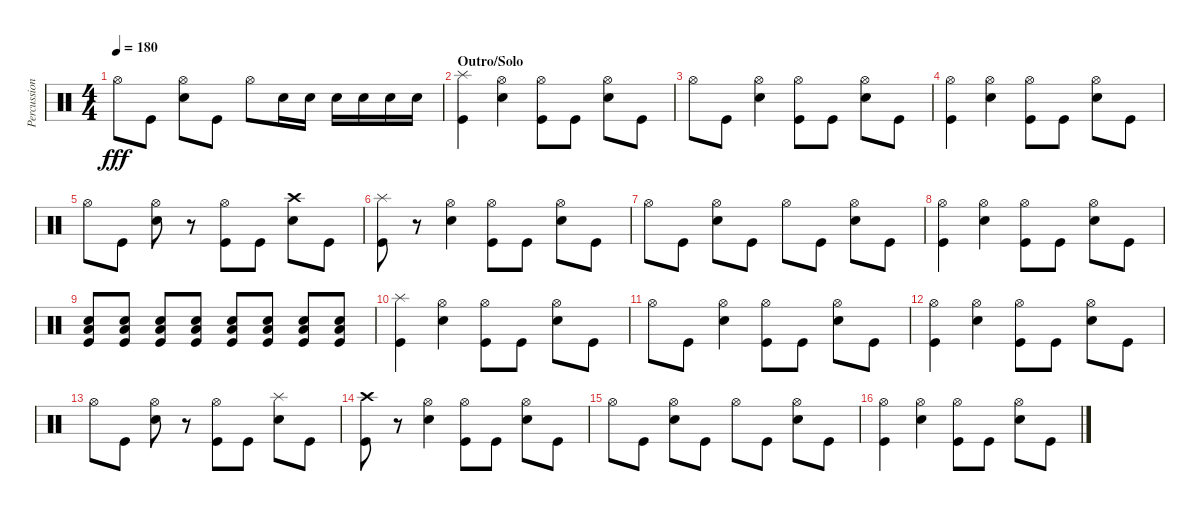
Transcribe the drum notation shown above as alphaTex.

\track ("Percussion" "Percussion") {instrument percussion}
\staff {score}
\articulation defaults
\ts (4 4)
\tempo 180
\clef neutral
\ks c "Hi-Hat (open)".8{dy fff} "Kick (hit)".8
("Hi-Hat (open)" "Snare (hit) 2").8 "Kick (hit)".8 "Hi-Hat (open)".8 "Snare (hit) 2".16 "Snare (hit) 2".16 "Snare (hit) 2".16 "Snare (hit) 2".16 "Snare (hit) 2".16 "Snare (hit) 2".16 |
\section ("" "Outro/Solo")
("Splash (hit)" "Kick (hit)").4 ("Hi-Hat (open)" "Snare (hit) 2").4 ("Hi-Hat (open)" "Kick (hit)").8 "Kick (hit)".8 ("Hi-Hat (open)" "Snare (hit) 2").8 "Kick (hit)".8 |
"Hi-Hat (open)".8 "Kick (hit)".8 ("Hi-Hat (open)" "Snare (hit) 2").4 ("Hi-Hat (open)" "Kick (hit)").8 "Kick (hit)".8 ("Hi-Hat (open)" "Snare (hit) 2").8 "Kick (hit)".8 |
("Hi-Hat (open)" "Kick (hit)").4 ("Hi-Hat (open)" "Snare (hit) 2").4 ("Hi-Hat (open)" "Kick (hit)").8 "Kick (hit)".8 ("Hi-Hat (open)" "Snare (hit) 2").8 "Kick (hit)".8 |
"Hi-Hat (open)".8 "Kick (hit)".8 ("Hi-Hat (open)" "Snare (hit) 2").8 r.8 ("Hi-Hat (open)" "Kick (hit)").8 "Kick (hit)".8 ("Crash high (hit)" "Snare (hit) 2").8 "Kick (hit)".8 |
("Splash (hit)" "Kick (hit)").8 r.8 ("Hi-Hat (open)" "Snare (hit) 2").4 ("Hi-Hat (open)" "Kick (hit)").8 "Kick (hit)".8 ("Hi-Hat (open)" "Snare (hit) 2").8 "Kick (hit)".8 |
"Hi-Hat (open)".8 "Kick (hit)".8 ("Hi-Hat (open)" "Snare (hit) 2").8 "Kick (hit)".8 "Hi-Hat (open)".8 "Kick (hit)".8 ("Hi-Hat (open)" "Snare (hit) 2").8 "Kick (hit)".8 |
("Hi-Hat (open)" "Kick (hit)").4 ("Hi-Hat (open)" "Snare (hit) 2").4 ("Hi-Hat (open)" "Kick (hit)").8 "Kick (hit)".8 ("Hi-Hat (open)" "Snare (hit) 2").8 "Kick (hit)".8 |
("Low Tom (hit)" "Snare (hit) 2" "Kick (hit)").8 ("Low Tom (hit)" "Snare (hit) 2" "Kick (hit)").8 ("Low Tom (hit)" "Snare (hit) 2" "Kick (hit)").8 ("Low Tom (hit)" "Snare (hit) 2" "Kick (hit)").8 ("Low Tom (hit)" "Snare (hit) 2" "Kick (hit)").8 ("Low Tom (hit)" "Snare (hit) 2" "Kick (hit)").8 ("Low Tom (hit)" "Snare (hit) 2" "Kick (hit)").8 ("Low Tom (hit)" "Snare (hit) 2" "Kick (hit)").8 |
("Splash (hit)" "Kick (hit)").4 ("Hi-Hat (open)" "Snare (hit) 2").4 ("Hi-Hat (open)" "Kick (hit)").8 "Kick (hit)".8 ("Hi-Hat (open)" "Snare (hit) 2").8 "Kick (hit)".8 |
"Hi-Hat (open)".8 "Kick (hit)".8 ("Hi-Hat (open)" "Snare (hit) 2").4 ("Hi-Hat (open)" "Kick (hit)").8 "Kick (hit)".8 ("Hi-Hat (open)" "Snare (hit) 2").8 "Kick (hit)".8 |
("Hi-Hat (open)" "Kick (hit)").4 ("Hi-Hat (open)" "Snare (hit) 2").4 ("Hi-Hat (open)" "Kick (hit)").8 "Kick (hit)".8 ("Hi-Hat (open)" "Snare (hit) 2").8 "Kick (hit)".8 |
"Hi-Hat (open)".8 "Kick (hit)".8 ("Hi-Hat (open)" "Snare (hit) 2").8 r.8 ("Hi-Hat (open)" "Kick (hit)").8 "Kick (hit)".8 ("Splash (hit)" "Snare (hit) 2").8 "Kick (hit)".8 |
("Crash high (hit)" "Kick (hit)").8 r.8 ("Hi-Hat (open)" "Snare (hit) 2").4 ("Hi-Hat (open)" "Kick (hit)").8 "Kick (hit)".8 ("Hi-Hat (open)" "Snare (hit) 2").8 "Kick (hit)".8 |
"Hi-Hat (open)".8 "Kick (hit)".8 ("Hi-Hat (open)" "Snare (hit) 2").8 "Kick (hit)".8 "Hi-Hat (open)".8 "Kick (hit)".8 ("Hi-Hat (open)" "Snare (hit) 2").8 "Kick (hit)".8 |
("Hi-Hat (open)" "Kick (hit)").4 ("Hi-Hat (open)" "Snare (hit) 2").4 ("Hi-Hat (open)" "Kick (hit)").8 "Kick (hit)".8 ("Hi-Hat (open)" "Snare (hit) 2").8 "Kick (hit)".8
